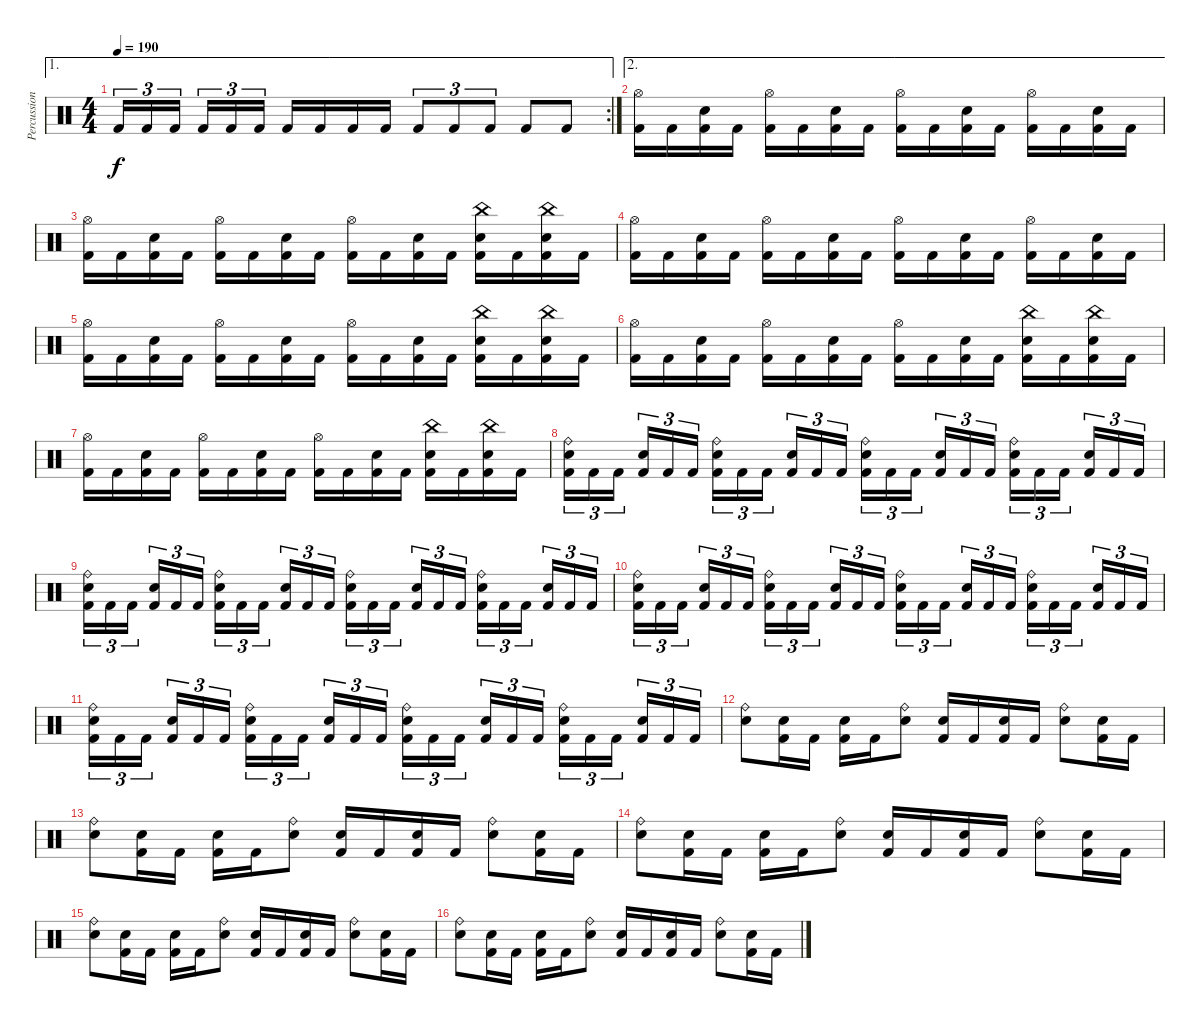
\track ("Percussion" "Percussion") {instrument percussion}
\staff {score}
\articulation defaults
\ae 1
\rc 2
\ts (4 4)
\tempo 190
\clef neutral
\ks c "Kick (hit) 2".16{tu (3 2) dy f} "Kick (hit) 2".16{tu (3 2)} "Kick (hit) 2".16{tu (3 2)} "Kick (hit) 2".16{tu (3 2)} "Kick (hit) 2".16{tu (3 2)} "Kick (hit) 2".16{tu (3 2)} "Kick (hit) 2".16 "Kick (hit) 2".16 "Kick (hit) 2".16 "Kick (hit) 2".16 "Kick (hit) 2".8{tu (3 2)} "Kick (hit) 2".8{tu (3 2)} "Kick (hit) 2".8{tu (3 2)} "Kick (hit) 2".8 "Kick (hit) 2".8
|
\ae 2
("Hi-Hat (open)" "Kick (hit) 2").16 "Kick (hit) 2".16 ("Snare (hit) 2" "Kick (hit) 2").16 "Kick (hit) 2".16 ("Hi-Hat (open)" "Kick (hit) 2").16 "Kick (hit) 2".16 ("Snare (hit) 2" "Kick (hit) 2").16 "Kick (hit) 2".16 ("Hi-Hat (open)" "Kick (hit) 2").16 "Kick (hit) 2".16 ("Snare (hit) 2" "Kick (hit) 2").16 "Kick (hit) 2".16 ("Hi-Hat (open)" "Kick (hit) 2").16 "Kick (hit) 2".16 ("Snare (hit) 2" "Kick (hit) 2").16 "Kick (hit) 2".16 |
("Hi-Hat (open)" "Kick (hit) 2").16 "Kick (hit) 2".16 ("Snare (hit) 2" "Kick (hit) 2").16 "Kick (hit) 2".16 ("Hi-Hat (open)" "Kick (hit) 2").16 "Kick (hit) 2".16 ("Snare (hit) 2" "Kick (hit) 2").16 "Kick (hit) 2".16 ("Hi-Hat (open)" "Kick (hit) 2").16 "Kick (hit) 2".16 ("Snare (hit) 2" "Kick (hit) 2").16 "Kick (hit) 2".16 ("China (hit)" "Snare (hit) 2" "Kick (hit) 2").16 "Kick (hit) 2".16 ("China (hit)" "Snare (hit) 2" "Kick (hit) 2").16 "Kick (hit) 2".16 |
("Hi-Hat (open)" "Kick (hit) 2").16 "Kick (hit) 2".16 ("Snare (hit) 2" "Kick (hit) 2").16 "Kick (hit) 2".16 ("Hi-Hat (open)" "Kick (hit) 2").16 "Kick (hit) 2".16 ("Snare (hit) 2" "Kick (hit) 2").16 "Kick (hit) 2".16 ("Hi-Hat (open)" "Kick (hit) 2").16 "Kick (hit) 2".16 ("Snare (hit) 2" "Kick (hit) 2").16 "Kick (hit) 2".16 ("Hi-Hat (open)" "Kick (hit) 2").16 "Kick (hit) 2".16 ("Snare (hit) 2" "Kick (hit) 2").16 "Kick (hit) 2".16 |
("Hi-Hat (open)" "Kick (hit) 2").16 "Kick (hit) 2".16 ("Snare (hit) 2" "Kick (hit) 2").16 "Kick (hit) 2".16 ("Hi-Hat (open)" "Kick (hit) 2").16 "Kick (hit) 2".16 ("Snare (hit) 2" "Kick (hit) 2").16 "Kick (hit) 2".16 ("Hi-Hat (open)" "Kick (hit) 2").16 "Kick (hit) 2".16 ("Snare (hit) 2" "Kick (hit) 2").16 "Kick (hit) 2".16 ("China (hit)" "Snare (hit) 2" "Kick (hit) 2").16 "Kick (hit) 2".16 ("China (hit)" "Snare (hit) 2" "Kick (hit) 2").16 "Kick (hit) 2".16 |
("Hi-Hat (open)" "Kick (hit) 2").16 "Kick (hit) 2".16 ("Snare (hit) 2" "Kick (hit) 2").16 "Kick (hit) 2".16 ("Hi-Hat (open)" "Kick (hit) 2").16 "Kick (hit) 2".16 ("Snare (hit) 2" "Kick (hit) 2").16 "Kick (hit) 2".16 ("Hi-Hat (open)" "Kick (hit) 2").16 "Kick (hit) 2".16 ("Snare (hit) 2" "Kick (hit) 2").16 "Kick (hit) 2".16 ("China (hit)" "Snare (hit) 2" "Kick (hit) 2").16 "Kick (hit) 2".16 ("China (hit)" "Snare (hit) 2" "Kick (hit) 2").16 "Kick (hit) 2".16 |
("Hi-Hat (open)" "Kick (hit) 2").16 "Kick (hit) 2".16 ("Snare (hit) 2" "Kick (hit) 2").16 "Kick (hit) 2".16 ("Hi-Hat (open)" "Kick (hit) 2").16 "Kick (hit) 2".16 ("Snare (hit) 2" "Kick (hit) 2").16 "Kick (hit) 2".16 ("Hi-Hat (open)" "Kick (hit) 2").16 "Kick (hit) 2".16 ("Snare (hit) 2" "Kick (hit) 2").16 "Kick (hit) 2".16 ("China (hit)" "Snare (hit) 2" "Kick (hit) 2").16 "Kick (hit) 2".16 ("China (hit)" "Snare (hit) 2" "Kick (hit) 2").16 "Kick (hit) 2".16 |
("Ride (bell)" "Snare (hit) 2" "Kick (hit) 2").16{tu (3 2)} "Kick (hit) 2".16{tu (3 2)} "Kick (hit) 2".16{tu (3 2)} ("Snare (hit) 2" "Kick (hit) 2").16{tu (3 2)} "Kick (hit) 2".16{tu (3 2)} "Kick (hit) 2".16{tu (3 2)} ("Ride (bell)" "Snare (hit) 2" "Kick (hit) 2").16{tu (3 2)} "Kick (hit) 2".16{tu (3 2)} "Kick (hit) 2".16{tu (3 2)} ("Snare (hit) 2" "Kick (hit) 2").16{tu (3 2)} "Kick (hit) 2".16{tu (3 2)} "Kick (hit) 2".16{tu (3 2)} ("Ride (bell)" "Snare (hit) 2" "Kick (hit) 2").16{tu (3 2)} "Kick (hit) 2".16{tu (3 2)} "Kick (hit) 2".16{tu (3 2)} ("Snare (hit) 2" "Kick (hit) 2").16{tu (3 2)} "Kick (hit) 2".16{tu (3 2)} "Kick (hit) 2".16{tu (3 2)} ("Ride (bell)" "Snare (hit) 2" "Kick (hit) 2").16{tu (3 2)} "Kick (hit) 2".16{tu (3 2)} "Kick (hit) 2".16{tu (3 2)} ("Snare (hit) 2" "Kick (hit) 2").16{tu (3 2)} "Kick (hit) 2".16{tu (3 2)} "Kick (hit) 2".16{tu (3 2)} |
("Ride (bell)" "Snare (hit) 2" "Kick (hit) 2").16{tu (3 2)} "Kick (hit) 2".16{tu (3 2)} "Kick (hit) 2".16{tu (3 2)} ("Snare (hit) 2" "Kick (hit) 2").16{tu (3 2)} "Kick (hit) 2".16{tu (3 2)} "Kick (hit) 2".16{tu (3 2)} ("Ride (bell)" "Snare (hit) 2" "Kick (hit) 2").16{tu (3 2)} "Kick (hit) 2".16{tu (3 2)} "Kick (hit) 2".16{tu (3 2)} ("Snare (hit) 2" "Kick (hit) 2").16{tu (3 2)} "Kick (hit) 2".16{tu (3 2)} "Kick (hit) 2".16{tu (3 2)} ("Ride (bell)" "Snare (hit) 2" "Kick (hit) 2").16{tu (3 2)} "Kick (hit) 2".16{tu (3 2)} "Kick (hit) 2".16{tu (3 2)} ("Snare (hit) 2" "Kick (hit) 2").16{tu (3 2)} "Kick (hit) 2".16{tu (3 2)} "Kick (hit) 2".16{tu (3 2)} ("Ride (bell)" "Snare (hit) 2" "Kick (hit) 2").16{tu (3 2)} "Kick (hit) 2".16{tu (3 2)} "Kick (hit) 2".16{tu (3 2)} ("Snare (hit) 2" "Kick (hit) 2").16{tu (3 2)} "Kick (hit) 2".16{tu (3 2)} "Kick (hit) 2".16{tu (3 2)} |
("Ride (bell)" "Snare (hit) 2" "Kick (hit) 2").16{tu (3 2)} "Kick (hit) 2".16{tu (3 2)} "Kick (hit) 2".16{tu (3 2)} ("Snare (hit) 2" "Kick (hit) 2").16{tu (3 2)} "Kick (hit) 2".16{tu (3 2)} "Kick (hit) 2".16{tu (3 2)} ("Ride (bell)" "Snare (hit) 2" "Kick (hit) 2").16{tu (3 2)} "Kick (hit) 2".16{tu (3 2)} "Kick (hit) 2".16{tu (3 2)} ("Snare (hit) 2" "Kick (hit) 2").16{tu (3 2)} "Kick (hit) 2".16{tu (3 2)} "Kick (hit) 2".16{tu (3 2)} ("Ride (bell)" "Snare (hit) 2" "Kick (hit) 2").16{tu (3 2)} "Kick (hit) 2".16{tu (3 2)} "Kick (hit) 2".16{tu (3 2)} ("Snare (hit) 2" "Kick (hit) 2").16{tu (3 2)} "Kick (hit) 2".16{tu (3 2)} "Kick (hit) 2".16{tu (3 2)} ("Ride (bell)" "Snare (hit) 2" "Kick (hit) 2").16{tu (3 2)} "Kick (hit) 2".16{tu (3 2)} "Kick (hit) 2".16{tu (3 2)} ("Snare (hit) 2" "Kick (hit) 2").16{tu (3 2)} "Kick (hit) 2".16{tu (3 2)} "Kick (hit) 2".16{tu (3 2)} |
("Ride (bell)" "Snare (hit) 2" "Kick (hit) 2").16{tu (3 2)} "Kick (hit) 2".16{tu (3 2)} "Kick (hit) 2".16{tu (3 2)} ("Snare (hit) 2" "Kick (hit) 2").16{tu (3 2)} "Kick (hit) 2".16{tu (3 2)} "Kick (hit) 2".16{tu (3 2)} ("Ride (bell)" "Snare (hit) 2" "Kick (hit) 2").16{tu (3 2)} "Kick (hit) 2".16{tu (3 2)} "Kick (hit) 2".16{tu (3 2)} ("Snare (hit) 2" "Kick (hit) 2").16{tu (3 2)} "Kick (hit) 2".16{tu (3 2)} "Kick (hit) 2".16{tu (3 2)} ("Ride (bell)" "Snare (hit) 2" "Kick (hit) 2").16{tu (3 2)} "Kick (hit) 2".16{tu (3 2)} "Kick (hit) 2".16{tu (3 2)} ("Snare (hit) 2" "Kick (hit) 2").16{tu (3 2)} "Kick (hit) 2".16{tu (3 2)} "Kick (hit) 2".16{tu (3 2)} ("Ride (bell)" "Snare (hit) 2" "Kick (hit) 2").16{tu (3 2)} "Kick (hit) 2".16{tu (3 2)} "Kick (hit) 2".16{tu (3 2)} ("Snare (hit) 2" "Kick (hit) 2").16{tu (3 2)} "Kick (hit) 2".16{tu (3 2)} "Kick (hit) 2".16{tu (3 2)} |
("Ride (bell)" "Snare (hit) 2").8 ("Snare (hit) 2" "Kick (hit) 2").16 "Kick (hit) 2".16 ("Snare (hit) 2" "Kick (hit) 2").16 "Kick (hit) 2".16 ("Ride (bell)" "Snare (hit) 2").8 ("Snare (hit) 2" "Kick (hit) 2").16 "Kick (hit) 2".16 ("Snare (hit) 2" "Kick (hit) 2").16 "Kick (hit) 2".16 ("Ride (bell)" "Snare (hit) 2").8 ("Snare (hit) 2" "Kick (hit) 2").16 "Kick (hit) 2".16 |
("Ride (bell)" "Snare (hit) 2").8 ("Snare (hit) 2" "Kick (hit) 2").16 "Kick (hit) 2".16 ("Snare (hit) 2" "Kick (hit) 2").16 "Kick (hit) 2".16 ("Ride (bell)" "Snare (hit) 2").8 ("Snare (hit) 2" "Kick (hit) 2").16 "Kick (hit) 2".16 ("Snare (hit) 2" "Kick (hit) 2").16 "Kick (hit) 2".16 ("Ride (bell)" "Snare (hit) 2").8 ("Snare (hit) 2" "Kick (hit) 2").16 "Kick (hit) 2".16 |
("Ride (bell)" "Snare (hit) 2").8 ("Snare (hit) 2" "Kick (hit) 2").16 "Kick (hit) 2".16 ("Snare (hit) 2" "Kick (hit) 2").16 "Kick (hit) 2".16 ("Ride (bell)" "Snare (hit) 2").8 ("Snare (hit) 2" "Kick (hit) 2").16 "Kick (hit) 2".16 ("Snare (hit) 2" "Kick (hit) 2").16 "Kick (hit) 2".16 ("Ride (bell)" "Snare (hit) 2").8 ("Snare (hit) 2" "Kick (hit) 2").16 "Kick (hit) 2".16 |
("Ride (bell)" "Snare (hit) 2").8 ("Snare (hit) 2" "Kick (hit) 2").16 "Kick (hit) 2".16 ("Snare (hit) 2" "Kick (hit) 2").16 "Kick (hit) 2".16 ("Ride (bell)" "Snare (hit) 2").8 ("Snare (hit) 2" "Kick (hit) 2").16 "Kick (hit) 2".16 ("Snare (hit) 2" "Kick (hit) 2").16 "Kick (hit) 2".16 ("Ride (bell)" "Snare (hit) 2").8 ("Snare (hit) 2" "Kick (hit) 2").16 "Kick (hit) 2".16 |
("Ride (bell)" "Snare (hit) 2").8 ("Snare (hit) 2" "Kick (hit) 2").16 "Kick (hit) 2".16 ("Snare (hit) 2" "Kick (hit) 2").16 "Kick (hit) 2".16 ("Ride (bell)" "Snare (hit) 2").8 ("Snare (hit) 2" "Kick (hit) 2").16 "Kick (hit) 2".16 ("Snare (hit) 2" "Kick (hit) 2").16 "Kick (hit) 2".16 ("Ride (bell)" "Snare (hit) 2").8 ("Snare (hit) 2" "Kick (hit) 2").16 "Kick (hit) 2".16
